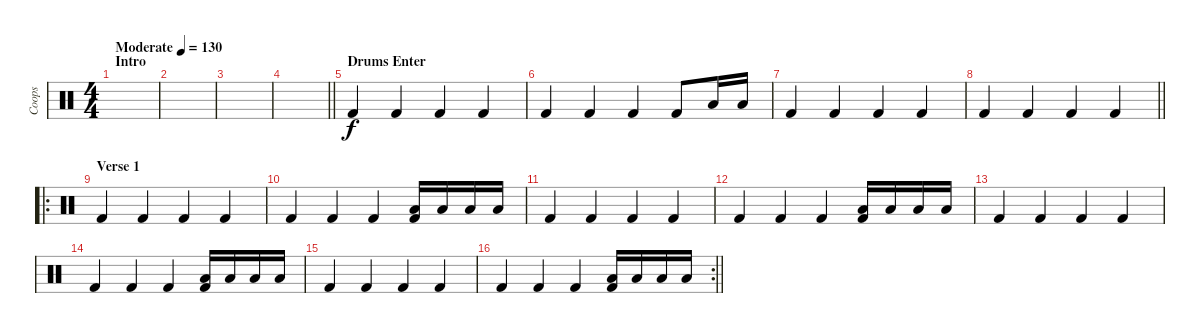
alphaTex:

\track ("Coops" "Coops") {instrument percussion}
\staff {score}
\articulation defaults
\ts (4 4)
\section ("" "Intro")
\tempo (130 "Moderate")
\clef neutral
\ks c
|
|
|
\barLineRight lightlight
|
\section ("" "Drums Enter")
"Kick (hit) 2".4 "Kick (hit) 2".4 "Kick (hit) 2".4 "Kick (hit) 2".4 |
"Kick (hit) 2".4 "Kick (hit) 2".4 "Kick (hit) 2".4 "Kick (hit) 2".8 "Low Floor Tom (hit)".16 "Low Floor Tom (hit)".16 |
"Kick (hit) 2".4 "Kick (hit) 2".4 "Kick (hit) 2".4 "Kick (hit) 2".4 |
\barLineRight lightlight "Kick (hit) 2".4 "Kick (hit) 2".4 "Kick (hit) 2".4 "Kick (hit) 2".4
|
\ro
\section ("" "Verse 1")
"Kick (hit) 2".4 "Kick (hit) 2".4 "Kick (hit) 2".4 "Kick (hit) 2".4 |
"Kick (hit) 2".4 "Kick (hit) 2".4 "Kick (hit) 2".4 ("Low Floor Tom (hit)" "Kick (hit) 2").16 "Low Floor Tom (hit)".16 "Low Floor Tom (hit)".16 "Low Floor Tom (hit)".16 |
"Kick (hit) 2".4 "Kick (hit) 2".4 "Kick (hit) 2".4 "Kick (hit) 2".4 |
"Kick (hit) 2".4 "Kick (hit) 2".4 "Kick (hit) 2".4 ("Low Floor Tom (hit)" "Kick (hit) 2").16 "Low Floor Tom (hit)".16 "Low Floor Tom (hit)".16 "Low Floor Tom (hit)".16 |
"Kick (hit) 2".4 "Kick (hit) 2".4 "Kick (hit) 2".4 "Kick (hit) 2".4 |
"Kick (hit) 2".4 "Kick (hit) 2".4 "Kick (hit) 2".4 ("Low Floor Tom (hit)" "Kick (hit) 2").16 "Low Floor Tom (hit)".16 "Low Floor Tom (hit)".16 "Low Floor Tom (hit)".16 |
"Kick (hit) 2".4 "Kick (hit) 2".4 "Kick (hit) 2".4 "Kick (hit) 2".4 |
\rc 2
\barLineRight lightlight "Kick (hit) 2".4 "Kick (hit) 2".4 "Kick (hit) 2".4
("Low Floor Tom (hit)" "Kick (hit) 2").16 "Low Floor Tom (hit)".16 "Low Floor Tom (hit)".16 "Low Floor Tom (hit)".16
